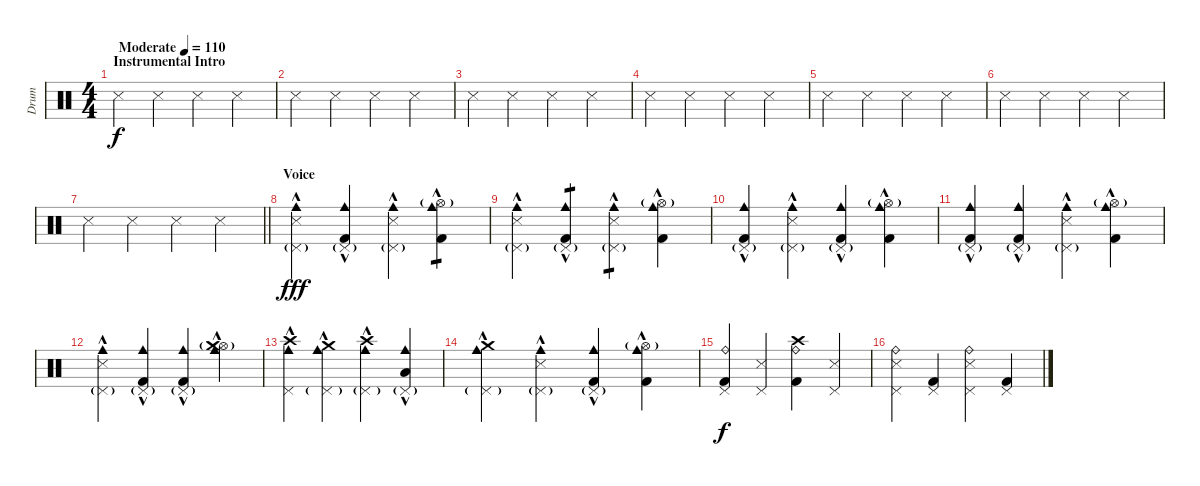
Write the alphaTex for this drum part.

\track ("Drum" "Drum") {instrument percussion}
\staff {score}
\articulation defaults
\ts (4 4)
\section ("" "Instrumental Intro")
\tempo (110 "Moderate")
\clef neutral
\ks c "Snare (side stick) 3".4{dy f} "Snare (side stick) 3".4 "Snare (side stick) 3".4 "Snare (side stick) 3".4
|
"Snare (side stick) 3".4 "Snare (side stick) 3".4 "Snare (side stick) 3".4 "Snare (side stick) 3".4 |
"Snare (side stick) 3".4 "Snare (side stick) 3".4 "Snare (side stick) 3".4 "Snare (side stick) 3".4 |
"Snare (side stick) 3".4 "Snare (side stick) 3".4 "Snare (side stick) 3".4 "Snare (side stick) 3".4 |
"Snare (side stick) 3".4 "Snare (side stick) 3".4 "Snare (side stick) 3".4 "Snare (side stick) 3".4 |
"Snare (side stick) 3".4 "Snare (side stick) 3".4 "Snare (side stick) 3".4 "Snare (side stick) 3".4 |
\barLineRight lightlight "Snare (side stick) 3".4 "Snare (side stick) 3".4 "Snare (side stick) 3".4 "Snare (side stick) 3".4
|
\section ("" "Voice")
("Pedal Hi-Hat (hit)"{g} "Cowbell medium (hit)"{hac} "Snare (side stick) 3"{hac}).4{dy fff} ("Pedal Hi-Hat (hit)"{g} "Cowbell medium (hit)"{hac} "Kick (hit) 2").4 ("Pedal Hi-Hat (hit)"{g} "Cowbell medium (hit)"{hac} "Snare (side stick) 3"{hac}).4 ("Hi-Hat (open)"{g} "Cowbell medium (hit)"{hac} "Kick (hit) 2").4{tp 1} |
("Pedal Hi-Hat (hit)"{g} "Cowbell medium (hit)"{hac} "Snare (side stick) 3"{hac}).4 ("Pedal Hi-Hat (hit)"{g} "Cowbell medium (hit)"{hac} "Kick (hit) 2").4{tp 1} ("Pedal Hi-Hat (hit)"{g} "Cowbell medium (hit)"{hac} "Snare (side stick) 3"{hac}).4{tp 1} ("Hi-Hat (open)"{g} "Cowbell medium (hit)"{hac} "Kick (hit) 2").4 |
("Pedal Hi-Hat (hit)"{g} "Cowbell medium (hit)"{hac} "Kick (hit) 2").4 ("Pedal Hi-Hat (hit)"{g} "Cowbell medium (hit)"{hac} "Snare (side stick) 3"{hac}).4 ("Pedal Hi-Hat (hit)"{g} "Cowbell medium (hit)"{hac} "Kick (hit) 2").4 ("Hi-Hat (open)"{g} "Cowbell medium (hit)"{hac} "Kick (hit) 2").4 |
("Pedal Hi-Hat (hit)"{g} "Cowbell medium (hit)"{hac} "Kick (hit) 2").4 ("Pedal Hi-Hat (hit)"{g} "Cowbell medium (hit)"{hac} "Kick (hit) 2").4 ("Pedal Hi-Hat (hit)"{g} "Cowbell medium (hit)"{hac} "Snare (side stick) 3"{hac}).4 ("Hi-Hat (open)"{g} "Cowbell medium (hit)"{hac} "Kick (hit) 2").4 |
("Pedal Hi-Hat (hit)"{g} "Cowbell medium (hit)"{hac} "Snare (side stick) 3"{hac}).4 ("Pedal Hi-Hat (hit)"{g} "Cowbell medium (hit)"{hac} "Kick (hit) 2").4 ("Pedal Hi-Hat (hit)"{g} "Cowbell medium (hit)"{hac} "Kick (hit) 2").4 ("Hi-Hat (open)"{g} "Cowbell medium (hit)"{hac} "Crash medium (hit)"{hac}).4 |
("Pedal Hi-Hat (hit)" "Cowbell medium (hit)"{hac} "Crash high (hit)").4 ("Pedal Hi-Hat (hit)"{g} "Cowbell medium (hit)"{hac} "Crash medium (hit)").4 ("Pedal Hi-Hat (hit)"{g} "Cowbell medium (hit)"{hac} "Crash high (hit)").4 ("Pedal Hi-Hat (hit)"{g} "Cowbell medium (hit)"{hac} "Low Tom (hit)").4 |
("Pedal Hi-Hat (hit)"{g} "Cowbell medium (hit)"{hac} "Crash medium (hit)").4 ("Pedal Hi-Hat (hit)"{g} "Cowbell medium (hit)"{hac} "Snare (side stick) 3"{hac}).4 ("Pedal Hi-Hat (hit)"{g} "Cowbell medium (hit)"{hac} "Kick (hit) 2").4 ("Hi-Hat (open)"{g} "Cowbell medium (hit)"{hac} "Kick (hit) 2").4 |
("Pedal Hi-Hat (hit)" "Kick (hit) 2" "Ride (bell)").4{dy f} ("Pedal Hi-Hat (hit)" "Snare (side stick) 3").4 ("Crash high (hit)" "Kick (hit) 2" "Ride (bell)").4 ("Pedal Hi-Hat (hit)" "Snare (side stick) 3").4 |
("Pedal Hi-Hat (hit)" "Snare (side stick) 3" "Ride (bell)").4 ("Pedal Hi-Hat (hit)" "Kick (hit) 2").4 ("Pedal Hi-Hat (hit)" "Snare (side stick) 3" "Ride (bell)").4 ("Pedal Hi-Hat (hit)" "Kick (hit) 2").4
